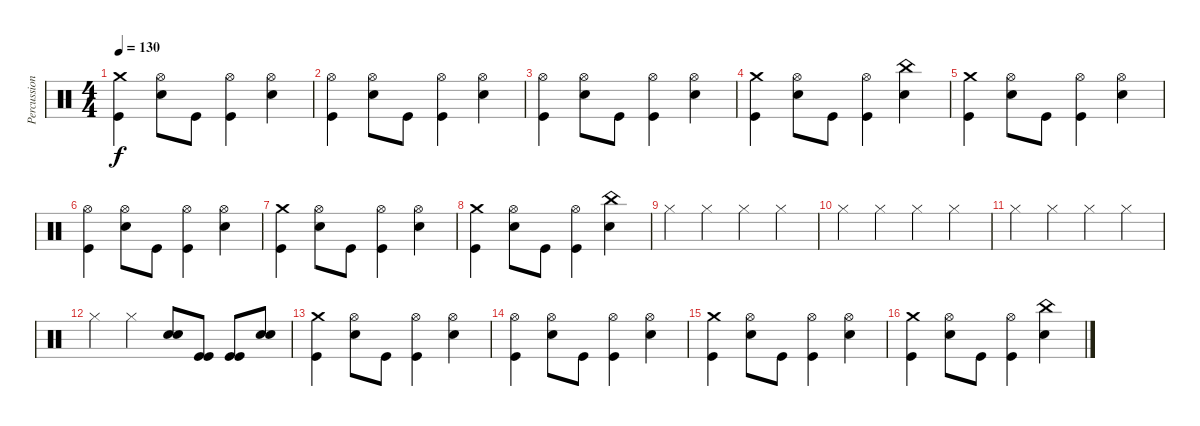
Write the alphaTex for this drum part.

\track ("Percussion" "Percussion") {instrument percussion}
\staff {score}
\articulation defaults
\ts (4 4)
\tempo 130
\clef neutral
\ks c
("Crash medium (hit)" "Kick (hit)").4{dy f} ("Hi-Hat (open)" "Snare (hit) 2").8 "Kick (hit)".8 ("Hi-Hat (open)" "Kick (hit)").4 ("Hi-Hat (open)" "Snare (hit) 2").4 |
("Hi-Hat (open)" "Kick (hit)").4 ("Hi-Hat (open)" "Snare (hit) 2").8 "Kick (hit)".8 ("Hi-Hat (open)" "Kick (hit)").4 ("Hi-Hat (open)" "Snare (hit) 2").4 |
("Hi-Hat (open)" "Kick (hit)").4 ("Hi-Hat (open)" "Snare (hit) 2").8 "Kick (hit)".8 ("Hi-Hat (open)" "Kick (hit)").4 ("Hi-Hat (open)" "Snare (hit) 2").4 |
("Crash medium (hit)" "Kick (hit)").4 ("Hi-Hat (open)" "Snare (hit) 2").8 "Kick (hit)".8 ("Hi-Hat (open)" "Kick (hit)").4 ("China (hit)" "Snare (hit) 2").4 |
("Crash medium (hit)" "Kick (hit)").4 ("Hi-Hat (open)" "Snare (hit) 2").8 "Kick (hit)".8 ("Hi-Hat (open)" "Kick (hit)").4 ("Hi-Hat (open)" "Snare (hit) 2").4 |
("Hi-Hat (open)" "Kick (hit)").4 ("Hi-Hat (open)" "Snare (hit) 2").8 "Kick (hit)".8 ("Hi-Hat (open)" "Kick (hit)").4 ("Hi-Hat (open)" "Snare (hit) 2").4 |
("Crash medium (hit)" "Kick (hit)").4 ("Hi-Hat (open)" "Snare (hit) 2").8 "Kick (hit)".8 ("Hi-Hat (open)" "Kick (hit)").4 ("Hi-Hat (open)" "Snare (hit) 2").4 |
("Crash medium (hit)" "Kick (hit)").4 ("Hi-Hat (open)" "Snare (hit) 2").8 "Kick (hit)".8 ("Hi-Hat (open)" "Kick (hit)").4 ("China (hit)" "Snare (hit) 2").4 |
"Hi-Hat (closed)".4 "Hi-Hat (closed)".4 "Hi-Hat (closed)".4 "Hi-Hat (closed)".4 |
"Hi-Hat (closed)".4 "Hi-Hat (closed)".4 "Hi-Hat (closed)".4 "Hi-Hat (closed)".4 |
"Hi-Hat (closed)".4 "Hi-Hat (closed)".4 "Hi-Hat (closed)".4 "Hi-Hat (closed)".4 |
"Hi-Hat (closed)".4 "Hi-Hat (closed)".4 ("Snare (hit) 2" "Snare (hit) 2").8 ("Kick (hit)" "Kick (hit)").8 ("Kick (hit)" "Kick (hit)").8 ("Snare (hit) 2" "Snare (hit) 2").8 |
("Crash medium (hit)" "Kick (hit)").4 ("Hi-Hat (open)" "Snare (hit) 2").8 "Kick (hit)".8 ("Hi-Hat (open)" "Kick (hit)").4 ("Hi-Hat (open)" "Snare (hit) 2").4 |
("Hi-Hat (open)" "Kick (hit)").4 ("Hi-Hat (open)" "Snare (hit) 2").8 "Kick (hit)".8 ("Hi-Hat (open)" "Kick (hit)").4 ("Hi-Hat (open)" "Snare (hit) 2").4 |
("Crash medium (hit)" "Kick (hit)").4 ("Hi-Hat (open)" "Snare (hit) 2").8 "Kick (hit)".8 ("Hi-Hat (open)" "Kick (hit)").4 ("Hi-Hat (open)" "Snare (hit) 2").4 |
("Crash medium (hit)" "Kick (hit)").4 ("Hi-Hat (open)" "Snare (hit) 2").8 "Kick (hit)".8 ("Hi-Hat (open)" "Kick (hit)").4 ("China (hit)" "Snare (hit) 2").4
